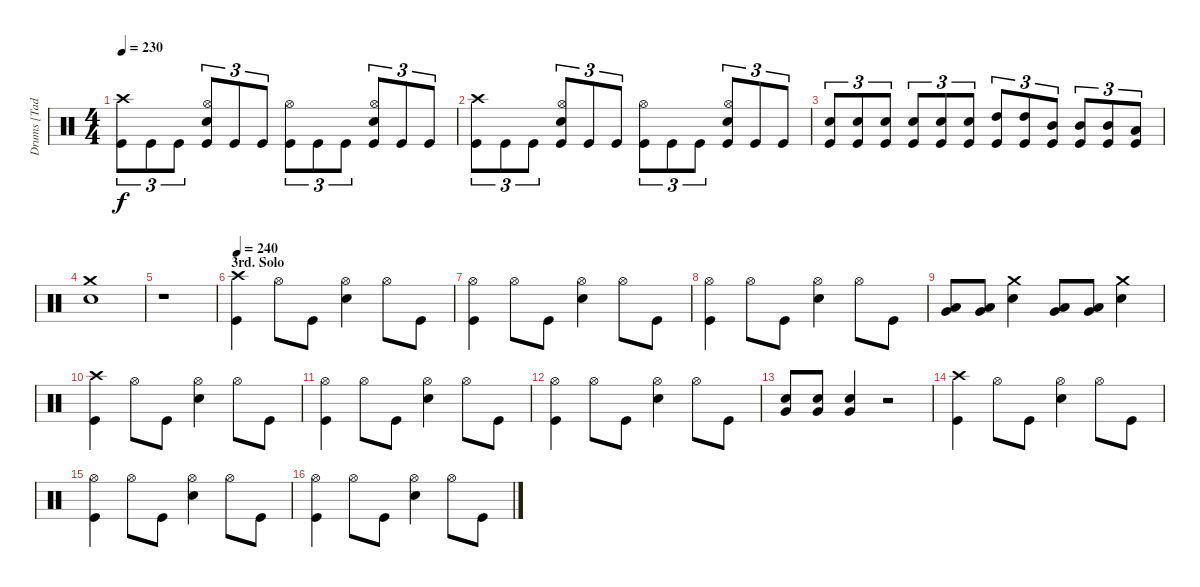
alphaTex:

\track ("Drums [Tad Leger]" "Drums [Tad") {instrument percussion}
\staff {score}
\articulation defaults
\ts (4 4)
\tempo 230
\clef neutral
\ks c
("Crash high (hit)" "Kick (hit)").8{tu (3 2) dy f} "Kick (hit)".8{tu (3 2)} "Kick (hit)".8{tu (3 2)} ("Hi-Hat (open)" "Electric Snare (hit)" "Kick (hit)").8{tu (3 2)} "Kick (hit)".8{tu (3 2)} "Kick (hit)".8{tu (3 2)} ("Hi-Hat (open)" "Kick (hit)").8{tu (3 2)} "Kick (hit)".8{tu (3 2)} "Kick (hit)".8{tu (3 2)} ("Hi-Hat (open)" "Electric Snare (hit)" "Kick (hit)").8{tu (3 2)} "Kick (hit)".8{tu (3 2)} "Kick (hit)".8{tu (3 2)} |
("Crash high (hit)" "Kick (hit)").8{tu (3 2)} "Kick (hit)".8{tu (3 2)} "Kick (hit)".8{tu (3 2)} ("Hi-Hat (open)" "Electric Snare (hit)" "Kick (hit)").8{tu (3 2)} "Kick (hit)".8{tu (3 2)} "Kick (hit)".8{tu (3 2)} ("Hi-Hat (open)" "Kick (hit)").8{tu (3 2)} "Kick (hit)".8{tu (3 2)} "Kick (hit)".8{tu (3 2)} ("Hi-Hat (open)" "Electric Snare (hit)" "Kick (hit)").8{tu (3 2)} "Kick (hit)".8{tu (3 2)} "Kick (hit)".8{tu (3 2)} |
("Electric Snare (hit)" "Kick (hit)").8{tu (3 2)} ("Electric Snare (hit)" "Kick (hit)").8{tu (3 2)} ("Electric Snare (hit)" "Kick (hit)").8{tu (3 2)} ("Electric Snare (hit)" "Kick (hit)").8{tu (3 2)} ("Electric Snare (hit)" "Kick (hit)").8{tu (3 2)} ("Electric Snare (hit)" "Kick (hit)").8{tu (3 2)} ("High Tom (hit)" "Kick (hit)").8{tu (3 2)} ("High Tom (hit)" "Kick (hit)").8{tu (3 2)} ("Mid Tom (hit)" "Kick (hit)").8{tu (3 2)} ("Mid Tom (hit)" "Kick (hit)").8{tu (3 2)} ("Mid Tom (hit)" "Kick (hit)").8{tu (3 2)} ("Low Tom (hit)" "Kick (hit)").8{tu (3 2)} |
("Crash medium (hit)" "Electric Snare (hit)").1 |
r.1 |
\section ("" "3rd. Solo")
\tempo 240
("Crash high (hit)" "Kick (hit)").4 "Hi-Hat (open)".8 "Kick (hit)".8 ("Hi-Hat (open)" "Electric Snare (hit)").4 "Hi-Hat (open)".8 "Kick (hit)".8 |
("Hi-Hat (open)" "Kick (hit)").4 "Hi-Hat (open)".8 "Kick (hit)".8 ("Hi-Hat (open)" "Electric Snare (hit)").4 "Hi-Hat (open)".8 "Kick (hit)".8 |
("Hi-Hat (open)" "Kick (hit)").4 "Hi-Hat (open)".8 "Kick (hit)".8 ("Hi-Hat (open)" "Electric Snare (hit)").4 "Hi-Hat (open)".8 "Kick (hit)".8 |
("Very Low Tom (hit)" "Low Tom (hit)").8 ("Very Low Tom (hit)" "Low Tom (hit)").8 ("Crash medium (hit)" "Electric Snare (hit)").4 ("Very Low Tom (hit)" "Low Tom (hit)").8 ("Very Low Tom (hit)" "Low Tom (hit)").8 ("Crash medium (hit)" "Electric Snare (hit)").4 |
("Crash high (hit)" "Kick (hit)").4 "Hi-Hat (open)".8 "Kick (hit)".8 ("Hi-Hat (open)" "Electric Snare (hit)").4 "Hi-Hat (open)".8 "Kick (hit)".8 |
("Hi-Hat (open)" "Kick (hit)").4 "Hi-Hat (open)".8 "Kick (hit)".8 ("Hi-Hat (open)" "Electric Snare (hit)").4 "Hi-Hat (open)".8 "Kick (hit)".8 |
("Hi-Hat (open)" "Kick (hit)").4 "Hi-Hat (open)".8 "Kick (hit)".8 ("Hi-Hat (open)" "Electric Snare (hit)").4 "Hi-Hat (open)".8 "Kick (hit)".8 |
("Very Low Tom (hit)" "Electric Snare (hit)").8 ("Very Low Tom (hit)" "Electric Snare (hit)").8 ("Very Low Tom (hit)" "Electric Snare (hit)").4 r.2 |
("Crash high (hit)" "Kick (hit)").4 "Hi-Hat (open)".8 "Kick (hit)".8 ("Hi-Hat (open)" "Electric Snare (hit)").4 "Hi-Hat (open)".8 "Kick (hit)".8 |
("Hi-Hat (open)" "Kick (hit)").4 "Hi-Hat (open)".8 "Kick (hit)".8 ("Hi-Hat (open)" "Electric Snare (hit)").4 "Hi-Hat (open)".8 "Kick (hit)".8 |
("Hi-Hat (open)" "Kick (hit)").4 "Hi-Hat (open)".8 "Kick (hit)".8 ("Hi-Hat (open)" "Electric Snare (hit)").4 "Hi-Hat (open)".8 "Kick (hit)".8
